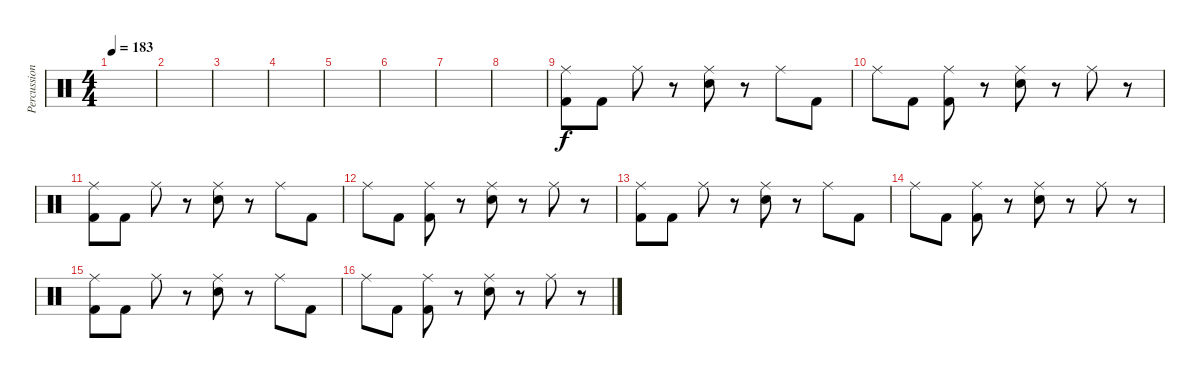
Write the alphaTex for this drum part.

\track ("Percussion" "Percussion") {instrument percussion}
\staff {score}
\articulation defaults
\ts (4 4)
\tempo 183
\tempo 163
\tempo 183
\clef neutral
\ks c
|
|
|
|
|
|
|
|
("Ride (middle)" "Kick (hit) 2").8 "Kick (hit) 2".8 "Ride (middle)".8 r.8 ("Ride (middle)" "Electric Snare (hit)").8 r.8 "Ride (middle)".8 "Kick (hit) 2".8 |
"Ride (middle)".8 "Kick (hit) 2".8 ("Ride (middle)" "Kick (hit) 2").8 r.8 ("Ride (middle)" "Electric Snare (hit)").8 r.8 "Ride (middle)".8 r.8 |
("Ride (middle)" "Kick (hit) 2").8 "Kick (hit) 2".8 "Ride (middle)".8 r.8 ("Ride (middle)" "Electric Snare (hit)").8 r.8 "Ride (middle)".8 "Kick (hit) 2".8 |
"Ride (middle)".8 "Kick (hit) 2".8 ("Ride (middle)" "Kick (hit) 2").8 r.8 ("Ride (middle)" "Electric Snare (hit)").8 r.8 "Ride (middle)".8 r.8 |
("Ride (middle)" "Kick (hit) 2").8 "Kick (hit) 2".8 "Ride (middle)".8 r.8 ("Ride (middle)" "Electric Snare (hit)").8 r.8 "Ride (middle)".8 "Kick (hit) 2".8 |
"Ride (middle)".8 "Kick (hit) 2".8 ("Ride (middle)" "Kick (hit) 2").8 r.8 ("Ride (middle)" "Electric Snare (hit)").8 r.8 "Ride (middle)".8 r.8 |
("Ride (middle)" "Kick (hit) 2").8 "Kick (hit) 2".8 "Ride (middle)".8 r.8 ("Ride (middle)" "Electric Snare (hit)").8 r.8 "Ride (middle)".8 "Kick (hit) 2".8 |
"Ride (middle)".8 "Kick (hit) 2".8 ("Ride (middle)" "Kick (hit) 2").8 r.8 ("Ride (middle)" "Electric Snare (hit)").8 r.8 "Ride (middle)".8 r.8
